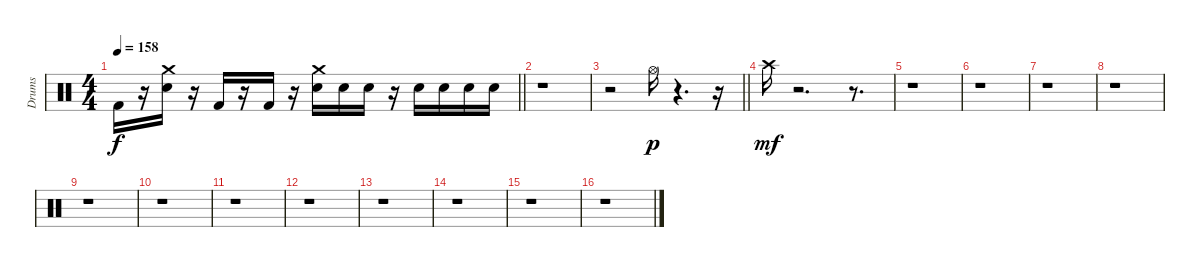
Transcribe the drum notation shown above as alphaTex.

\track ("Drums" "Drums") {instrument percussion}
\staff {score}
\articulation defaults
\ts (4 4)
\tempo 158
\clef neutral
\barLineRight lightlight
\ks c "Kick (hit) 2".16{dy f}
r.16 ("Snare (hit) 2" "Crash medium (hit)").16 r.16 "Kick (hit) 2".16 r.16 "Kick (hit) 2".16 r.16 ("Snare (hit) 2" "Crash medium (hit)").16 "Snare (hit) 2".16 "Snare (hit) 2".16 r.16 "Snare (hit) 2".16 "Snare (hit) 2".16 "Snare (hit) 2".16 "Snare (hit) 2".16 |
\section ("" " ")
r.1 |
\barLineRight lightlight
r.2 "Hi-Hat (open)".16{dy p} r.4{d} r.16 |
\section ("" " ")
"Crash high (hit)".16{dy mf} r.2{d} r.8{d} |
r.1 |
r.1 |
r.1 |
r.1 |
r.1 |
r.1 |
r.1 |
r.1 |
r.1 |
r.1 |
r.1 |
r.1
